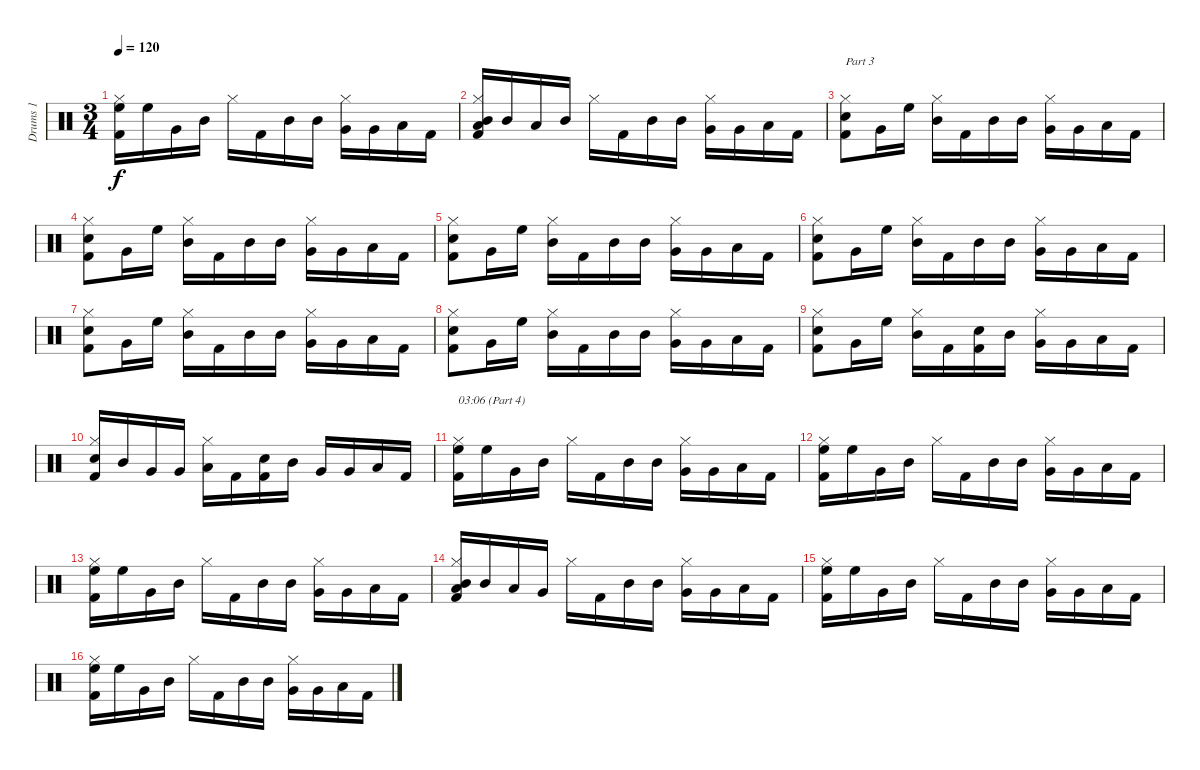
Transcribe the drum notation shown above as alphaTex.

\track ("Drums 1" "Drums 1") {instrument percussion}
\staff {score}
\articulation defaults
\ts (3 4)
\tempo 120
\clef neutral
\ks c
("High Floor Tom (hit)" "Kick (hit) 2" "Hi-Hat (closed)").16{dy f} "High Floor Tom (hit)".16 "Very Low Tom (hit)".16 "Mid Tom (hit)".16 "Hi-Hat (closed)".16 "Kick (hit) 2".16 "Mid Tom (hit)".16 "Mid Tom (hit)".16 ("Very Low Tom (hit)" "Hi-Hat (closed)").16 "Very Low Tom (hit)".16 "Low Floor Tom (hit)".16 "Kick (hit) 2".16 |
("Mid Tom (hit)" "Low Floor Tom (hit)" "Kick (hit) 2" "Hi-Hat (closed)").16 "Mid Tom (hit)".16 "Low Floor Tom (hit)".16 "Mid Tom (hit)".16 "Hi-Hat (closed)".16 "Kick (hit) 2".16 "Mid Tom (hit)".16 "Mid Tom (hit)".16 ("Very Low Tom (hit)" "Hi-Hat (closed)").16 "Very Low Tom (hit)".16 "Low Floor Tom (hit)".16 "Kick (hit) 2".16 |
("Snare (hit) 2" "Kick (hit) 2" "Hi-Hat (closed)").8{txt "Part 3"} "Very Low Tom (hit)".16 "High Floor Tom (hit)".16 ("Mid Tom (hit)" "Hi-Hat (closed)").16 "Kick (hit) 2".16 "Mid Tom (hit)".16 "Mid Tom (hit)".16 ("Very Low Tom (hit)" "Hi-Hat (closed)").16 "Very Low Tom (hit)".16 "Low Floor Tom (hit)".16 "Kick (hit) 2".16 |
("Snare (hit) 2" "Kick (hit) 2" "Hi-Hat (closed)").8 "Very Low Tom (hit)".16 "High Floor Tom (hit)".16 ("Mid Tom (hit)" "Hi-Hat (closed)").16 "Kick (hit) 2".16 "Mid Tom (hit)".16 "Mid Tom (hit)".16 ("Very Low Tom (hit)" "Hi-Hat (closed)").16 "Very Low Tom (hit)".16 "Low Floor Tom (hit)".16 "Kick (hit) 2".16 |
("Snare (hit) 2" "Kick (hit) 2" "Hi-Hat (closed)").8 "Very Low Tom (hit)".16 "High Floor Tom (hit)".16 ("Mid Tom (hit)" "Hi-Hat (closed)").16 "Kick (hit) 2".16 "Mid Tom (hit)".16 "Mid Tom (hit)".16 ("Very Low Tom (hit)" "Hi-Hat (closed)").16 "Very Low Tom (hit)".16 "Low Floor Tom (hit)".16 "Kick (hit) 2".16 |
("Snare (hit) 2" "Kick (hit) 2" "Hi-Hat (closed)").8 "Very Low Tom (hit)".16 "High Floor Tom (hit)".16 ("Mid Tom (hit)" "Hi-Hat (closed)").16 "Kick (hit) 2".16 "Mid Tom (hit)".16 "Mid Tom (hit)".16 ("Very Low Tom (hit)" "Hi-Hat (closed)").16 "Very Low Tom (hit)".16 "Low Floor Tom (hit)".16 "Kick (hit) 2".16 |
("Snare (hit) 2" "Kick (hit) 2" "Hi-Hat (closed)").8 "Very Low Tom (hit)".16 "High Floor Tom (hit)".16 ("Mid Tom (hit)" "Hi-Hat (closed)").16 "Kick (hit) 2".16 "Mid Tom (hit)".16 "Mid Tom (hit)".16 ("Very Low Tom (hit)" "Hi-Hat (closed)").16 "Very Low Tom (hit)".16 "Low Floor Tom (hit)".16 "Kick (hit) 2".16 |
("Snare (hit) 2" "Kick (hit) 2" "Hi-Hat (closed)").8 "Very Low Tom (hit)".16 "High Floor Tom (hit)".16 ("Mid Tom (hit)" "Hi-Hat (closed)").16 "Kick (hit) 2".16 "Mid Tom (hit)".16 "Mid Tom (hit)".16 ("Very Low Tom (hit)" "Hi-Hat (closed)").16 "Very Low Tom (hit)".16 "Low Floor Tom (hit)".16 "Kick (hit) 2".16 |
("Snare (hit) 2" "Kick (hit) 2" "Hi-Hat (closed)").8 "Very Low Tom (hit)".16 "High Floor Tom (hit)".16 ("Mid Tom (hit)" "Hi-Hat (closed)").16 "Kick (hit) 2".16 ("Snare (hit) 2" "Kick (hit) 2").16 "Mid Tom (hit)".16 ("Very Low Tom (hit)" "Hi-Hat (closed)").16 "Very Low Tom (hit)".16 "Low Floor Tom (hit)".16 "Kick (hit) 2".16 |
("Snare (hit) 2" "Kick (hit) 2" "Hi-Hat (closed)").16 "Mid Tom (hit)".16 "Very Low Tom (hit)".16 "Very Low Tom (hit)".16 ("Low Floor Tom (hit)" "Hi-Hat (closed)").16 "Kick (hit) 2".16 ("Snare (hit) 2" "Kick (hit) 2").16 "Mid Tom (hit)".16 "Very Low Tom (hit)".16 "Very Low Tom (hit)".16 "Low Floor Tom (hit)".16 "Kick (hit) 2".16 |
("High Floor Tom (hit)" "Kick (hit) 2" "Hi-Hat (closed)").16{txt "03:06 (Part 4)"} "High Floor Tom (hit)".16 "Very Low Tom (hit)".16 "Mid Tom (hit)".16 "Hi-Hat (closed)".16 "Kick (hit) 2".16 "Mid Tom (hit)".16 "Mid Tom (hit)".16 ("Very Low Tom (hit)" "Hi-Hat (closed)").16 "Very Low Tom (hit)".16 "Low Floor Tom (hit)".16 "Kick (hit) 2".16 |
("High Floor Tom (hit)" "Kick (hit) 2" "Hi-Hat (closed)").16 "High Floor Tom (hit)".16 "Very Low Tom (hit)".16 "Mid Tom (hit)".16 "Hi-Hat (closed)".16 "Kick (hit) 2".16 "Mid Tom (hit)".16 "Mid Tom (hit)".16 ("Very Low Tom (hit)" "Hi-Hat (closed)").16 "Very Low Tom (hit)".16 "Low Floor Tom (hit)".16 "Kick (hit) 2".16 |
("High Floor Tom (hit)" "Kick (hit) 2" "Hi-Hat (closed)").16 "High Floor Tom (hit)".16 "Very Low Tom (hit)".16 "Mid Tom (hit)".16 "Hi-Hat (closed)".16 "Kick (hit) 2".16 "Mid Tom (hit)".16 "Mid Tom (hit)".16 ("Very Low Tom (hit)" "Hi-Hat (closed)").16 "Very Low Tom (hit)".16 "Low Floor Tom (hit)".16 "Kick (hit) 2".16 |
("Mid Tom (hit)" "Low Floor Tom (hit)" "Kick (hit) 2" "Hi-Hat (closed)").16 "Mid Tom (hit)".16 "Low Floor Tom (hit)".16 "Very Low Tom (hit)".16 "Hi-Hat (closed)".16 "Kick (hit) 2".16 "Mid Tom (hit)".16 "Mid Tom (hit)".16 ("Very Low Tom (hit)" "Hi-Hat (closed)").16 "Very Low Tom (hit)".16 "Low Floor Tom (hit)".16 "Kick (hit) 2".16 |
("High Floor Tom (hit)" "Kick (hit) 2" "Hi-Hat (closed)").16 "High Floor Tom (hit)".16 "Very Low Tom (hit)".16 "Mid Tom (hit)".16 "Hi-Hat (closed)".16 "Kick (hit) 2".16 "Mid Tom (hit)".16 "Mid Tom (hit)".16 ("Very Low Tom (hit)" "Hi-Hat (closed)").16 "Very Low Tom (hit)".16 "Low Floor Tom (hit)".16 "Kick (hit) 2".16 |
("High Floor Tom (hit)" "Kick (hit) 2" "Hi-Hat (closed)").16 "High Floor Tom (hit)".16 "Very Low Tom (hit)".16 "Mid Tom (hit)".16 "Hi-Hat (closed)".16 "Kick (hit) 2".16 "Mid Tom (hit)".16 "Mid Tom (hit)".16 ("Very Low Tom (hit)" "Hi-Hat (closed)").16 "Very Low Tom (hit)".16 "Low Floor Tom (hit)".16 "Kick (hit) 2".16
